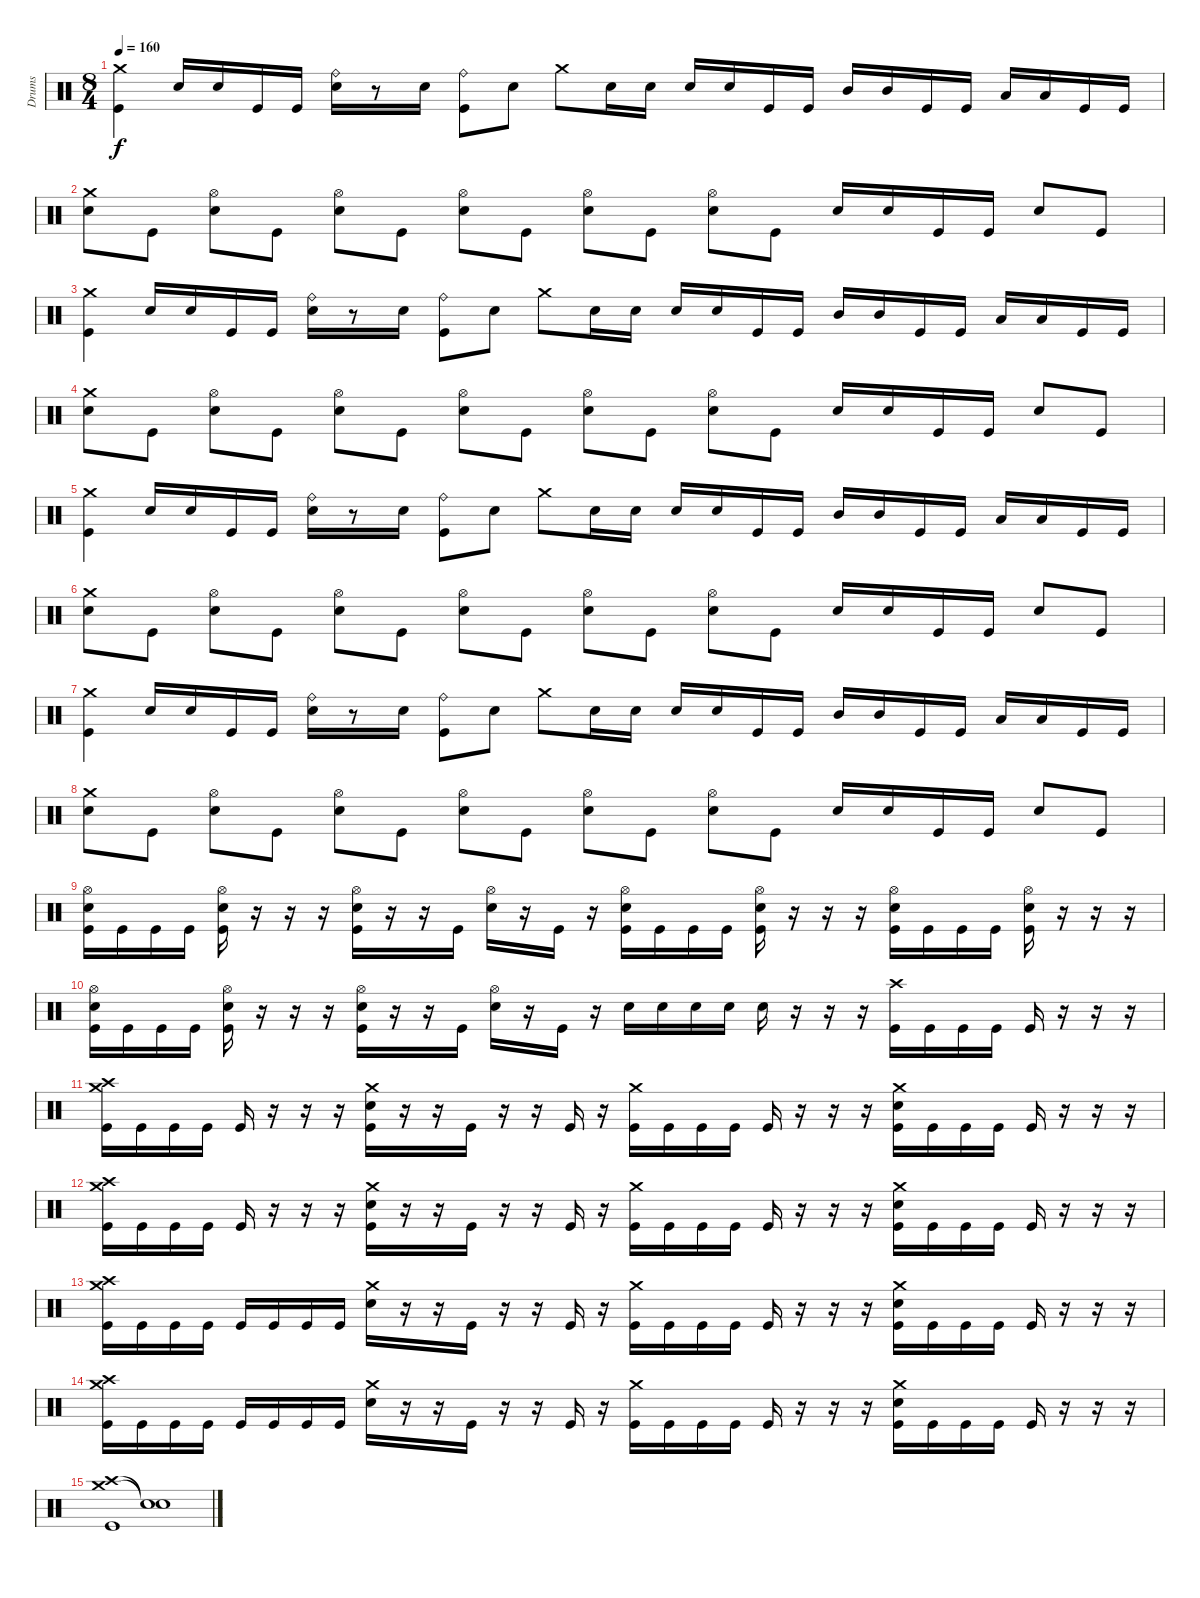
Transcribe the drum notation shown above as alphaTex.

\track ("Drums" "Drums") {instrument percussion}
\staff {score}
\articulation defaults
\ts (8 4)
\tempo 160
\clef neutral
\ks c
("Crash medium (hit)" "Kick (hit)").4{dy f} "Snare (hit) 2".16 "Snare (hit) 2".16 "Kick (hit)".16 "Kick (hit)".16 ("Ride (bell)" "Snare (hit) 2").16 r.8 "Snare (hit) 2".16 ("Ride (bell)" "Kick (hit)").8 "Snare (hit) 2".8 "Crash medium (hit)".8 "Snare (hit) 2".16 "Snare (hit) 2".16 "Snare (hit) 2".16 "Snare (hit) 2".16 "Kick (hit)".16 "Kick (hit)".16 "Mid Tom (hit)".16 "Mid Tom (hit)".16 "Kick (hit)".16 "Kick (hit)".16 "Low Floor Tom (hit)".16 "Low Floor Tom (hit)".16 "Kick (hit)".16 "Kick (hit)".16 |
("Crash medium (hit)" "Snare (hit) 2").8 "Kick (hit)".8 ("Hi-Hat (open)" "Snare (hit) 2").8 "Kick (hit)".8 ("Hi-Hat (open)" "Snare (hit) 2").8 "Kick (hit)".8 ("Hi-Hat (open)" "Snare (hit) 2").8 "Kick (hit)".8 ("Hi-Hat (open)" "Snare (hit) 2").8 "Kick (hit)".8 ("Hi-Hat (open)" "Snare (hit) 2").8 "Kick (hit)".8 "Snare (hit) 2".16 "Snare (hit) 2".16 "Kick (hit)".16 "Kick (hit)".16 "Snare (hit) 2".8 "Kick (hit)".8 |
("Crash medium (hit)" "Kick (hit)").4 "Snare (hit) 2".16 "Snare (hit) 2".16 "Kick (hit)".16 "Kick (hit)".16 ("Ride (bell)" "Snare (hit) 2").16 r.8 "Snare (hit) 2".16 ("Ride (bell)" "Kick (hit)").8 "Snare (hit) 2".8 "Crash medium (hit)".8 "Snare (hit) 2".16 "Snare (hit) 2".16 "Snare (hit) 2".16 "Snare (hit) 2".16 "Kick (hit)".16 "Kick (hit)".16 "Mid Tom (hit)".16 "Mid Tom (hit)".16 "Kick (hit)".16 "Kick (hit)".16 "Low Floor Tom (hit)".16 "Low Floor Tom (hit)".16 "Kick (hit)".16 "Kick (hit)".16 |
("Crash medium (hit)" "Snare (hit) 2").8 "Kick (hit)".8 ("Hi-Hat (open)" "Snare (hit) 2").8 "Kick (hit)".8 ("Hi-Hat (open)" "Snare (hit) 2").8 "Kick (hit)".8 ("Hi-Hat (open)" "Snare (hit) 2").8 "Kick (hit)".8 ("Hi-Hat (open)" "Snare (hit) 2").8 "Kick (hit)".8 ("Hi-Hat (open)" "Snare (hit) 2").8 "Kick (hit)".8 "Snare (hit) 2".16 "Snare (hit) 2".16 "Kick (hit)".16 "Kick (hit)".16 "Snare (hit) 2".8 "Kick (hit)".8 |
("Crash medium (hit)" "Kick (hit)").4 "Snare (hit) 2".16 "Snare (hit) 2".16 "Kick (hit)".16 "Kick (hit)".16 ("Ride (bell)" "Snare (hit) 2").16 r.8 "Snare (hit) 2".16 ("Ride (bell)" "Kick (hit)").8 "Snare (hit) 2".8 "Crash medium (hit)".8 "Snare (hit) 2".16 "Snare (hit) 2".16 "Snare (hit) 2".16 "Snare (hit) 2".16 "Kick (hit)".16 "Kick (hit)".16 "Mid Tom (hit)".16 "Mid Tom (hit)".16 "Kick (hit)".16 "Kick (hit)".16 "Low Floor Tom (hit)".16 "Low Floor Tom (hit)".16 "Kick (hit)".16 "Kick (hit)".16 |
("Crash medium (hit)" "Snare (hit) 2").8 "Kick (hit)".8 ("Hi-Hat (open)" "Snare (hit) 2").8 "Kick (hit)".8 ("Hi-Hat (open)" "Snare (hit) 2").8 "Kick (hit)".8 ("Hi-Hat (open)" "Snare (hit) 2").8 "Kick (hit)".8 ("Hi-Hat (open)" "Snare (hit) 2").8 "Kick (hit)".8 ("Hi-Hat (open)" "Snare (hit) 2").8 "Kick (hit)".8 "Snare (hit) 2".16 "Snare (hit) 2".16 "Kick (hit)".16 "Kick (hit)".16 "Snare (hit) 2".8 "Kick (hit)".8 |
("Crash medium (hit)" "Kick (hit)").4 "Snare (hit) 2".16 "Snare (hit) 2".16 "Kick (hit)".16 "Kick (hit)".16 ("Ride (bell)" "Snare (hit) 2").16 r.8 "Snare (hit) 2".16 ("Ride (bell)" "Kick (hit)").8 "Snare (hit) 2".8 "Crash medium (hit)".8 "Snare (hit) 2".16 "Snare (hit) 2".16 "Snare (hit) 2".16 "Snare (hit) 2".16 "Kick (hit)".16 "Kick (hit)".16 "Mid Tom (hit)".16 "Mid Tom (hit)".16 "Kick (hit)".16 "Kick (hit)".16 "Low Floor Tom (hit)".16 "Low Floor Tom (hit)".16 "Kick (hit)".16 "Kick (hit)".16 |
("Crash medium (hit)" "Snare (hit) 2").8 "Kick (hit)".8 ("Hi-Hat (open)" "Snare (hit) 2").8 "Kick (hit)".8 ("Hi-Hat (open)" "Snare (hit) 2").8 "Kick (hit)".8 ("Hi-Hat (open)" "Snare (hit) 2").8 "Kick (hit)".8 ("Hi-Hat (open)" "Snare (hit) 2").8 "Kick (hit)".8 ("Hi-Hat (open)" "Snare (hit) 2").8 "Kick (hit)".8 "Snare (hit) 2".16 "Snare (hit) 2".16 "Kick (hit)".16 "Kick (hit)".16 "Snare (hit) 2".8 "Kick (hit)".8 |
("Hi-Hat (open)" "Snare (hit) 2" "Kick (hit)").16 "Kick (hit)".16 "Kick (hit)".16 "Kick (hit)".16 ("Hi-Hat (open)" "Snare (hit) 2" "Kick (hit)").16 r.16 r.16 r.16 ("Hi-Hat (open)" "Snare (hit) 2" "Kick (hit)").16 r.16 r.16 "Kick (hit)".16 ("Hi-Hat (open)" "Snare (hit) 2").16 r.16 "Kick (hit)".16 r.16 ("Hi-Hat (open)" "Snare (hit) 2" "Kick (hit)").16 "Kick (hit)".16 "Kick (hit)".16 "Kick (hit)".16 ("Hi-Hat (open)" "Snare (hit) 2" "Kick (hit)").16 r.16 r.16 r.16 ("Hi-Hat (open)" "Snare (hit) 2" "Kick (hit)").16 "Kick (hit)".16 "Kick (hit)".16 "Kick (hit)".16 ("Hi-Hat (open)" "Snare (hit) 2" "Kick (hit)").16 r.16 r.16 r.16 |
("Hi-Hat (open)" "Snare (hit) 2" "Kick (hit)").16 "Kick (hit)".16 "Kick (hit)".16 "Kick (hit)".16 ("Hi-Hat (open)" "Snare (hit) 2" "Kick (hit)").16 r.16 r.16 r.16 ("Hi-Hat (open)" "Snare (hit) 2" "Kick (hit)").16 r.16 r.16 "Kick (hit)".16 ("Hi-Hat (open)" "Snare (hit) 2").16 r.16 "Kick (hit)".16 r.16 "Snare (hit) 2".16 "Snare (hit) 2".16 "Snare (hit) 2".16 "Snare (hit) 2".16 "Snare (hit) 2".16 r.16 r.16 r.16 ("Crash high (hit)" "Kick (hit)").16 "Kick (hit)".16 "Kick (hit)".16 "Kick (hit)".16 "Kick (hit)".16 r.16 r.16 r.16 |
("Crash high (hit)" "Crash medium (hit)" "Kick (hit)").16 "Kick (hit)".16 "Kick (hit)".16 "Kick (hit)".16 "Kick (hit)".16 r.16 r.16 r.16 ("Crash medium (hit)" "Snare (hit) 2" "Kick (hit)").16 r.16 r.16 "Kick (hit)".16 r.16 r.16 "Kick (hit)".16 r.16 ("Crash medium (hit)" "Kick (hit)").16 "Kick (hit)".16 "Kick (hit)".16 "Kick (hit)".16 "Kick (hit)".16 r.16 r.16 r.16 ("Crash medium (hit)" "Snare (hit) 2" "Kick (hit)").16 "Kick (hit)".16 "Kick (hit)".16 "Kick (hit)".16 "Kick (hit)".16 r.16 r.16 r.16 |
("Crash high (hit)" "Crash medium (hit)" "Kick (hit)").16 "Kick (hit)".16 "Kick (hit)".16 "Kick (hit)".16 "Kick (hit)".16 r.16 r.16 r.16 ("Crash medium (hit)" "Snare (hit) 2" "Kick (hit)").16 r.16 r.16 "Kick (hit)".16 r.16 r.16 "Kick (hit)".16 r.16 ("Crash medium (hit)" "Kick (hit)").16 "Kick (hit)".16 "Kick (hit)".16 "Kick (hit)".16 "Kick (hit)".16 r.16 r.16 r.16 ("Crash medium (hit)" "Snare (hit) 2" "Kick (hit)").16 "Kick (hit)".16 "Kick (hit)".16 "Kick (hit)".16 "Kick (hit)".16 r.16 r.16 r.16 |
("Crash high (hit)" "Crash medium (hit)" "Kick (hit)").16 "Kick (hit)".16 "Kick (hit)".16 "Kick (hit)".16 "Kick (hit)".16 "Kick (hit)".16 "Kick (hit)".16 "Kick (hit)".16 ("Crash medium (hit)" "Snare (hit) 2").16 r.16 r.16 "Kick (hit)".16 r.16 r.16 "Kick (hit)".16 r.16 ("Crash medium (hit)" "Kick (hit)").16 "Kick (hit)".16 "Kick (hit)".16 "Kick (hit)".16 "Kick (hit)".16 r.16 r.16 r.16 ("Crash medium (hit)" "Snare (hit) 2" "Kick (hit)").16 "Kick (hit)".16 "Kick (hit)".16 "Kick (hit)".16 "Kick (hit)".16 r.16 r.16 r.16 |
("Crash high (hit)" "Crash medium (hit)" "Kick (hit)").16 "Kick (hit)".16 "Kick (hit)".16 "Kick (hit)".16 "Kick (hit)".16 "Kick (hit)".16 "Kick (hit)".16 "Kick (hit)".16 ("Crash medium (hit)" "Snare (hit) 2").16 r.16 r.16 "Kick (hit)".16 r.16 r.16 "Kick (hit)".16 r.16 ("Crash medium (hit)" "Kick (hit)").16 "Kick (hit)".16 "Kick (hit)".16 "Kick (hit)".16 "Kick (hit)".16 r.16 r.16 r.16 ("Crash medium (hit)" "Snare (hit) 2" "Kick (hit)").16 "Kick (hit)".16 "Kick (hit)".16 "Kick (hit)".16 "Kick (hit)".16 r.16 r.16 r.16 |
("Crash medium (hit)" "Crash high (hit)" "Kick (hit)").1 ("Snare (hit)"{t} "Snare (hit)"{t}).1
